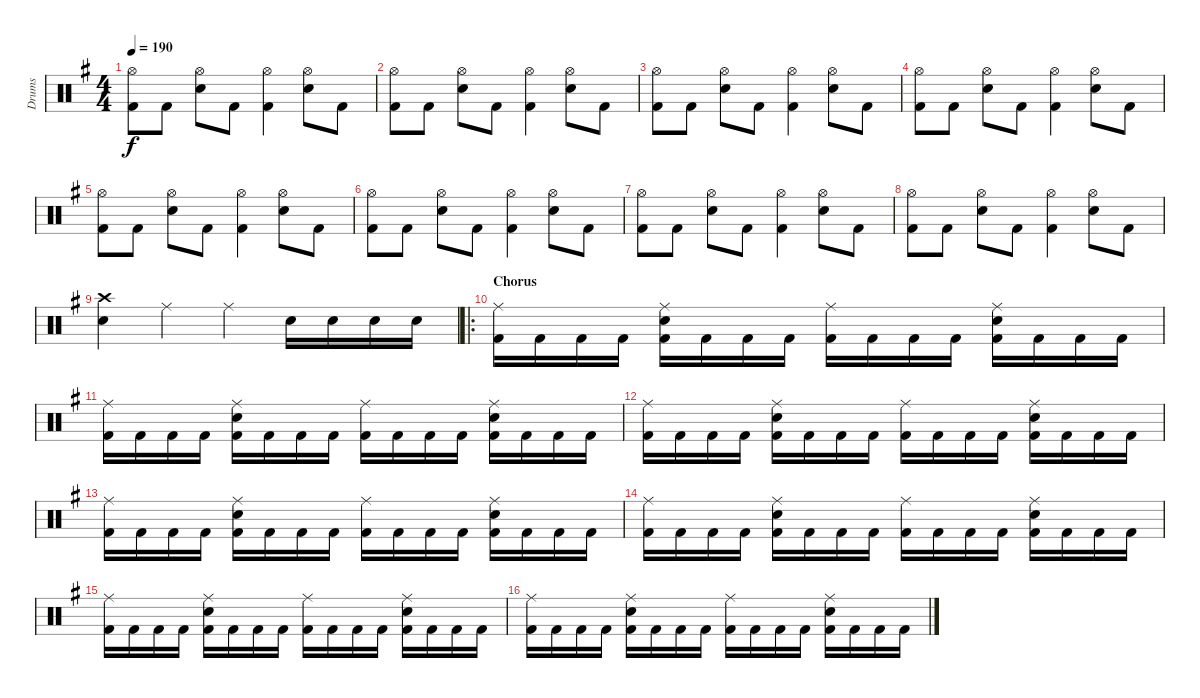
\track ("Drums" "Drums") {instrument percussion}
\staff {score}
\articulation defaults
\ts (4 4)
\tempo 190
\clef neutral
\ks eminor
("Hi-Hat (open)" "Kick (hit) 2").8{dy f} "Kick (hit) 2".8 ("Hi-Hat (open)" "Electric Snare (hit)").8 "Kick (hit) 2".8 ("Hi-Hat (open)" "Kick (hit) 2").4 ("Hi-Hat (open)" "Electric Snare (hit)").8 "Kick (hit) 2".8 |
("Hi-Hat (open)" "Kick (hit) 2").8 "Kick (hit) 2".8 ("Hi-Hat (open)" "Electric Snare (hit)").8 "Kick (hit) 2".8 ("Hi-Hat (open)" "Kick (hit) 2").4 ("Hi-Hat (open)" "Electric Snare (hit)").8 "Kick (hit) 2".8 |
("Hi-Hat (open)" "Kick (hit) 2").8 "Kick (hit) 2".8 ("Hi-Hat (open)" "Electric Snare (hit)").8 "Kick (hit) 2".8 ("Hi-Hat (open)" "Kick (hit) 2").4 ("Hi-Hat (open)" "Electric Snare (hit)").8 "Kick (hit) 2".8 |
("Hi-Hat (open)" "Kick (hit) 2").8 "Kick (hit) 2".8 ("Hi-Hat (open)" "Electric Snare (hit)").8 "Kick (hit) 2".8 ("Hi-Hat (open)" "Kick (hit) 2").4 ("Hi-Hat (open)" "Electric Snare (hit)").8 "Kick (hit) 2".8 |
("Hi-Hat (open)" "Kick (hit) 2").8 "Kick (hit) 2".8 ("Hi-Hat (open)" "Electric Snare (hit)").8 "Kick (hit) 2".8 ("Hi-Hat (open)" "Kick (hit) 2").4 ("Hi-Hat (open)" "Electric Snare (hit)").8 "Kick (hit) 2".8 |
("Hi-Hat (open)" "Kick (hit) 2").8 "Kick (hit) 2".8 ("Hi-Hat (open)" "Electric Snare (hit)").8 "Kick (hit) 2".8 ("Hi-Hat (open)" "Kick (hit) 2").4 ("Hi-Hat (open)" "Electric Snare (hit)").8 "Kick (hit) 2".8 |
("Hi-Hat (open)" "Kick (hit) 2").8 "Kick (hit) 2".8 ("Hi-Hat (open)" "Electric Snare (hit)").8 "Kick (hit) 2".8 ("Hi-Hat (open)" "Kick (hit) 2").4 ("Hi-Hat (open)" "Electric Snare (hit)").8 "Kick (hit) 2".8 |
("Hi-Hat (open)" "Kick (hit) 2").8 "Kick (hit) 2".8 ("Hi-Hat (open)" "Electric Snare (hit)").8 "Kick (hit) 2".8 ("Hi-Hat (open)" "Kick (hit) 2").4 ("Hi-Hat (open)" "Electric Snare (hit)").8 "Kick (hit) 2".8 |
("Crash high (hit)" "Electric Snare (hit)").4 "Ride (middle)".4 "Ride (middle)".4 "Electric Snare (hit)".16 "Electric Snare (hit)".16 "Electric Snare (hit)".16 "Electric Snare (hit)".16 |
\ro
\section ("" "Chorus")
("Ride (middle)" "Kick (hit) 2").16 "Kick (hit) 2".16 "Kick (hit) 2".16 "Kick (hit) 2".16 ("Ride (middle)" "Electric Snare (hit)" "Kick (hit) 2").16 "Kick (hit) 2".16 "Kick (hit) 2".16 "Kick (hit) 2".16 ("Ride (middle)" "Kick (hit) 2").16 "Kick (hit) 2".16 "Kick (hit) 2".16 "Kick (hit) 2".16 ("Ride (middle)" "Electric Snare (hit)" "Kick (hit) 2").16 "Kick (hit) 2".16 "Kick (hit) 2".16 "Kick (hit) 2".16 |
("Ride (middle)" "Kick (hit) 2").16 "Kick (hit) 2".16 "Kick (hit) 2".16 "Kick (hit) 2".16 ("Ride (middle)" "Electric Snare (hit)" "Kick (hit) 2").16 "Kick (hit) 2".16 "Kick (hit) 2".16 "Kick (hit) 2".16 ("Ride (middle)" "Kick (hit) 2").16 "Kick (hit) 2".16 "Kick (hit) 2".16 "Kick (hit) 2".16 ("Ride (middle)" "Electric Snare (hit)" "Kick (hit) 2").16 "Kick (hit) 2".16 "Kick (hit) 2".16 "Kick (hit) 2".16 |
("Ride (middle)" "Kick (hit) 2").16 "Kick (hit) 2".16 "Kick (hit) 2".16 "Kick (hit) 2".16 ("Ride (middle)" "Electric Snare (hit)" "Kick (hit) 2").16 "Kick (hit) 2".16 "Kick (hit) 2".16 "Kick (hit) 2".16 ("Ride (middle)" "Kick (hit) 2").16 "Kick (hit) 2".16 "Kick (hit) 2".16 "Kick (hit) 2".16 ("Ride (middle)" "Electric Snare (hit)" "Kick (hit) 2").16 "Kick (hit) 2".16 "Kick (hit) 2".16 "Kick (hit) 2".16 |
("Ride (middle)" "Kick (hit) 2").16 "Kick (hit) 2".16 "Kick (hit) 2".16 "Kick (hit) 2".16 ("Ride (middle)" "Electric Snare (hit)" "Kick (hit) 2").16 "Kick (hit) 2".16 "Kick (hit) 2".16 "Kick (hit) 2".16 ("Ride (middle)" "Kick (hit) 2").16 "Kick (hit) 2".16 "Kick (hit) 2".16 "Kick (hit) 2".16 ("Ride (middle)" "Electric Snare (hit)" "Kick (hit) 2").16 "Kick (hit) 2".16 "Kick (hit) 2".16 "Kick (hit) 2".16 |
("Ride (middle)" "Kick (hit) 2").16 "Kick (hit) 2".16 "Kick (hit) 2".16 "Kick (hit) 2".16 ("Ride (middle)" "Electric Snare (hit)" "Kick (hit) 2").16 "Kick (hit) 2".16 "Kick (hit) 2".16 "Kick (hit) 2".16 ("Ride (middle)" "Kick (hit) 2").16 "Kick (hit) 2".16 "Kick (hit) 2".16 "Kick (hit) 2".16 ("Ride (middle)" "Electric Snare (hit)" "Kick (hit) 2").16 "Kick (hit) 2".16 "Kick (hit) 2".16 "Kick (hit) 2".16 |
("Ride (middle)" "Kick (hit) 2").16 "Kick (hit) 2".16 "Kick (hit) 2".16 "Kick (hit) 2".16 ("Ride (middle)" "Electric Snare (hit)" "Kick (hit) 2").16 "Kick (hit) 2".16 "Kick (hit) 2".16 "Kick (hit) 2".16 ("Ride (middle)" "Kick (hit) 2").16 "Kick (hit) 2".16 "Kick (hit) 2".16 "Kick (hit) 2".16 ("Ride (middle)" "Electric Snare (hit)" "Kick (hit) 2").16 "Kick (hit) 2".16 "Kick (hit) 2".16 "Kick (hit) 2".16 |
("Ride (middle)" "Kick (hit) 2").16 "Kick (hit) 2".16 "Kick (hit) 2".16 "Kick (hit) 2".16 ("Ride (middle)" "Electric Snare (hit)" "Kick (hit) 2").16 "Kick (hit) 2".16 "Kick (hit) 2".16 "Kick (hit) 2".16 ("Ride (middle)" "Kick (hit) 2").16 "Kick (hit) 2".16 "Kick (hit) 2".16 "Kick (hit) 2".16 ("Ride (middle)" "Electric Snare (hit)" "Kick (hit) 2").16 "Kick (hit) 2".16 "Kick (hit) 2".16 "Kick (hit) 2".16
